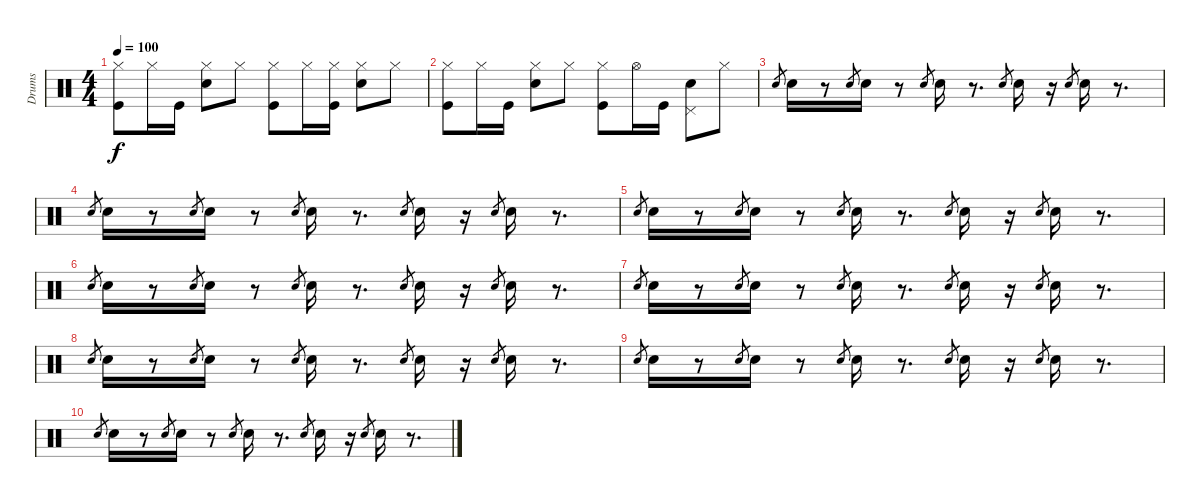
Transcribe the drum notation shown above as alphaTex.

\track ("Drums" "Drums") {instrument percussion}
\staff {score}
\articulation defaults
\ts (4 4)
\tempo 100
\clef neutral
\ks c
("Hi-Hat (closed)" "Kick (hit)").8{dy f} "Hi-Hat (closed)".16 "Kick (hit)".16 ("Hi-Hat (closed)" "Snare (hit) 2").8 "Hi-Hat (closed)".8 ("Hi-Hat (closed)" "Kick (hit)").8 "Hi-Hat (closed)".16 ("Hi-Hat (closed)" "Kick (hit)").16 ("Hi-Hat (closed)" "Snare (hit) 2").8 "Hi-Hat (closed)".8 |
("Hi-Hat (closed)" "Kick (hit)").8 "Hi-Hat (closed)".16 "Kick (hit)".16 ("Hi-Hat (closed)" "Snare (hit) 2").8 "Hi-Hat (closed)".8 ("Hi-Hat (closed)" "Kick (hit)").8 "Hi-Hat (open)".16 "Kick (hit)".16 ("Pedal Hi-Hat (hit)" "Snare (hit) 2").8 "Hi-Hat (closed)".8 |
"Hand Clap (hit)".8{gr} "Hand Clap (hit)".16 r.8 "Hand Clap (hit)".8{gr} "Hand Clap (hit)".16 r.8 "Hand Clap (hit)".8{gr} "Hand Clap (hit)".16 r.8{d} "Hand Clap (hit)".8{gr} "Hand Clap (hit)".16 r.16 "Hand Clap (hit)".8{gr} "Hand Clap (hit)".16 r.8{d} |
"Hand Clap (hit)".8{gr} "Hand Clap (hit)".16 r.8 "Hand Clap (hit)".8{gr} "Hand Clap (hit)".16 r.8 "Hand Clap (hit)".8{gr} "Hand Clap (hit)".16 r.8{d} "Hand Clap (hit)".8{gr} "Hand Clap (hit)".16 r.16 "Hand Clap (hit)".8{gr} "Hand Clap (hit)".16 r.8{d} |
"Hand Clap (hit)".8{gr} "Hand Clap (hit)".16 r.8 "Hand Clap (hit)".8{gr} "Hand Clap (hit)".16 r.8 "Hand Clap (hit)".8{gr} "Hand Clap (hit)".16 r.8{d} "Hand Clap (hit)".8{gr} "Hand Clap (hit)".16 r.16 "Hand Clap (hit)".8{gr} "Hand Clap (hit)".16 r.8{d} |
"Hand Clap (hit)".8{gr} "Hand Clap (hit)".16 r.8 "Hand Clap (hit)".8{gr} "Hand Clap (hit)".16 r.8 "Hand Clap (hit)".8{gr} "Hand Clap (hit)".16 r.8{d} "Hand Clap (hit)".8{gr} "Hand Clap (hit)".16 r.16 "Hand Clap (hit)".8{gr} "Hand Clap (hit)".16 r.8{d} |
"Hand Clap (hit)".8{gr} "Hand Clap (hit)".16 r.8 "Hand Clap (hit)".8{gr} "Hand Clap (hit)".16 r.8 "Hand Clap (hit)".8{gr} "Hand Clap (hit)".16 r.8{d} "Hand Clap (hit)".8{gr} "Hand Clap (hit)".16 r.16 "Hand Clap (hit)".8{gr} "Hand Clap (hit)".16 r.8{d} |
"Hand Clap (hit)".8{gr} "Hand Clap (hit)".16 r.8 "Hand Clap (hit)".8{gr} "Hand Clap (hit)".16 r.8 "Hand Clap (hit)".8{gr} "Hand Clap (hit)".16 r.8{d} "Hand Clap (hit)".8{gr} "Hand Clap (hit)".16 r.16 "Hand Clap (hit)".8{gr} "Hand Clap (hit)".16 r.8{d} |
"Hand Clap (hit)".8{gr} "Hand Clap (hit)".16 r.8 "Hand Clap (hit)".8{gr} "Hand Clap (hit)".16 r.8 "Hand Clap (hit)".8{gr} "Hand Clap (hit)".16 r.8{d} "Hand Clap (hit)".8{gr} "Hand Clap (hit)".16 r.16 "Hand Clap (hit)".8{gr} "Hand Clap (hit)".16 r.8{d} |
"Hand Clap (hit)".8{gr} "Hand Clap (hit)".16 r.8 "Hand Clap (hit)".8{gr} "Hand Clap (hit)".16 r.8 "Hand Clap (hit)".8{gr} "Hand Clap (hit)".16 r.8{d} "Hand Clap (hit)".8{gr} "Hand Clap (hit)".16 r.16 "Hand Clap (hit)".8{gr} "Hand Clap (hit)".16 r.8{d}
